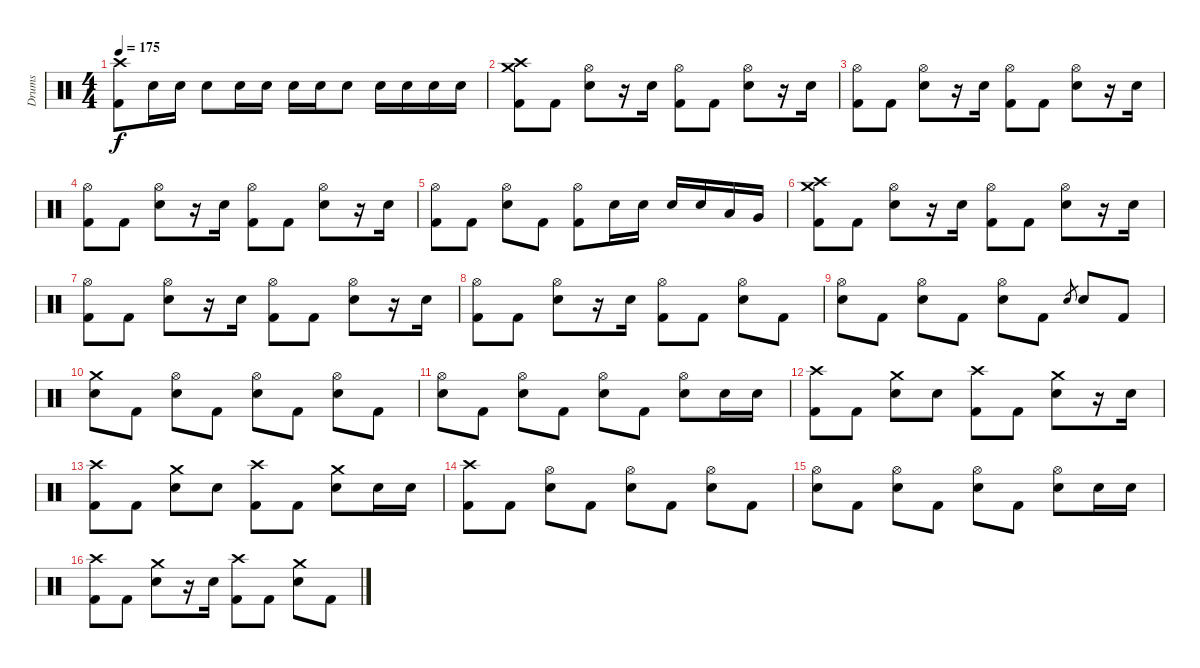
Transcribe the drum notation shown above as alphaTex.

\track ("Drums" "Drums") {instrument percussion}
\staff {score}
\articulation defaults
\ts (4 4)
\tempo 175
\clef neutral
\ks c
("Crash high (hit)" "Kick (hit) 2").8{dy f} "Electric Snare (hit)".16 "Electric Snare (hit)".16 "Electric Snare (hit)".8 "Electric Snare (hit)".16 "Electric Snare (hit)".16 "Electric Snare (hit)".16 "Electric Snare (hit)".16 "Electric Snare (hit)".8 "Electric Snare (hit)".16 "Electric Snare (hit)".16 "Electric Snare (hit)".16 "Electric Snare (hit)".16 |
("Crash high (hit)" "Crash medium (hit)" "Kick (hit) 2").8 "Kick (hit) 2".8 ("Hi-Hat (open)" "Electric Snare (hit)").8 r.16 "Electric Snare (hit)".16 ("Hi-Hat (open)" "Kick (hit) 2").8 "Kick (hit) 2".8 ("Hi-Hat (open)" "Electric Snare (hit)").8 r.16 "Electric Snare (hit)".16 |
("Hi-Hat (open)" "Kick (hit) 2").8 "Kick (hit) 2".8 ("Hi-Hat (open)" "Electric Snare (hit)").8 r.16 "Electric Snare (hit)".16 ("Hi-Hat (open)" "Kick (hit) 2").8 "Kick (hit) 2".8 ("Hi-Hat (open)" "Electric Snare (hit)").8 r.16 "Electric Snare (hit)".16 |
("Hi-Hat (open)" "Kick (hit) 2").8 "Kick (hit) 2".8 ("Hi-Hat (open)" "Electric Snare (hit)").8 r.16 "Electric Snare (hit)".16 ("Hi-Hat (open)" "Kick (hit) 2").8 "Kick (hit) 2".8 ("Hi-Hat (open)" "Electric Snare (hit)").8 r.16 "Electric Snare (hit)".16 |
("Hi-Hat (open)" "Kick (hit) 2").8 "Kick (hit) 2".8 ("Hi-Hat (open)" "Electric Snare (hit)").8 "Kick (hit) 2".8 ("Hi-Hat (open)" "Kick (hit) 2").8 "Electric Snare (hit)".16 "Electric Snare (hit)".16 "Electric Snare (hit)".16 "Electric Snare (hit)".16 "Low Tom (hit)".16 "Very Low Tom (hit)".16 |
("Crash high (hit)" "Crash medium (hit)" "Kick (hit) 2").8 "Kick (hit) 2".8 ("Hi-Hat (open)" "Electric Snare (hit)").8 r.16 "Electric Snare (hit)".16 ("Hi-Hat (open)" "Kick (hit) 2").8 "Kick (hit) 2".8 ("Hi-Hat (open)" "Electric Snare (hit)").8 r.16 "Electric Snare (hit)".16 |
("Hi-Hat (open)" "Kick (hit) 2").8 "Kick (hit) 2".8 ("Hi-Hat (open)" "Electric Snare (hit)").8 r.16 "Electric Snare (hit)".16 ("Hi-Hat (open)" "Kick (hit) 2").8 "Kick (hit) 2".8 ("Hi-Hat (open)" "Electric Snare (hit)").8 r.16 "Electric Snare (hit)".16 |
("Hi-Hat (open)" "Kick (hit) 2").8 "Kick (hit) 2".8 ("Hi-Hat (open)" "Electric Snare (hit)").8 r.16 "Electric Snare (hit)".16 ("Hi-Hat (open)" "Kick (hit) 2").8 "Kick (hit) 2".8 ("Hi-Hat (open)" "Electric Snare (hit)").8 "Kick (hit) 2".8 |
("Hi-Hat (open)" "Electric Snare (hit)").8 "Kick (hit) 2".8 ("Hi-Hat (open)" "Electric Snare (hit)").8 "Kick (hit) 2".8 ("Hi-Hat (open)" "Electric Snare (hit)").8 "Kick (hit) 2".8 "Electric Snare (hit)".8{gr} "Electric Snare (hit)".8 "Kick (hit) 2".8 |
("Crash medium (hit)" "Electric Snare (hit)").8 "Kick (hit) 2".8 ("Hi-Hat (open)" "Electric Snare (hit)").8 "Kick (hit) 2".8 ("Hi-Hat (open)" "Electric Snare (hit)").8 "Kick (hit) 2".8 ("Hi-Hat (open)" "Electric Snare (hit)").8 "Kick (hit) 2".8 |
("Hi-Hat (open)" "Electric Snare (hit)").8 "Kick (hit) 2".8 ("Hi-Hat (open)" "Electric Snare (hit)").8 "Kick (hit) 2".8 ("Hi-Hat (open)" "Electric Snare (hit)").8 "Kick (hit) 2".8 ("Hi-Hat (open)" "Electric Snare (hit)").8 "Electric Snare (hit)".16 "Electric Snare (hit)".16 |
("Crash high (hit)" "Kick (hit) 2").8 "Kick (hit) 2".8 ("Crash medium (hit)" "Electric Snare (hit)").8 "Electric Snare (hit)".8 ("Crash high (hit)" "Kick (hit) 2").8 "Kick (hit) 2".8 ("Crash medium (hit)" "Electric Snare (hit)").8 r.16 "Electric Snare (hit)".16 |
("Crash high (hit)" "Kick (hit) 2").8 "Kick (hit) 2".8 ("Crash medium (hit)" "Electric Snare (hit)").8 "Electric Snare (hit)".8 ("Crash high (hit)" "Kick (hit) 2").8 "Kick (hit) 2".8 ("Crash medium (hit)" "Electric Snare (hit)").8 "Electric Snare (hit)".16 "Electric Snare (hit)".16 |
("Crash high (hit)" "Kick (hit) 2").8 "Kick (hit) 2".8 ("Hi-Hat (open)" "Electric Snare (hit)").8 "Kick (hit) 2".8 ("Hi-Hat (open)" "Electric Snare (hit)").8 "Kick (hit) 2".8 ("Hi-Hat (open)" "Electric Snare (hit)").8 "Kick (hit) 2".8 |
("Hi-Hat (open)" "Electric Snare (hit)").8 "Kick (hit) 2".8 ("Hi-Hat (open)" "Electric Snare (hit)").8 "Kick (hit) 2".8 ("Hi-Hat (open)" "Electric Snare (hit)").8 "Kick (hit) 2".8 ("Hi-Hat (open)" "Electric Snare (hit)").8 "Electric Snare (hit)".16 "Electric Snare (hit)".16 |
("Crash high (hit)" "Kick (hit) 2").8 "Kick (hit) 2".8 ("Crash medium (hit)" "Electric Snare (hit)").8 r.16 "Electric Snare (hit)".16 ("Crash high (hit)" "Kick (hit) 2").8 "Kick (hit) 2".8 ("Crash medium (hit)" "Electric Snare (hit)").8 "Kick (hit) 2".8
